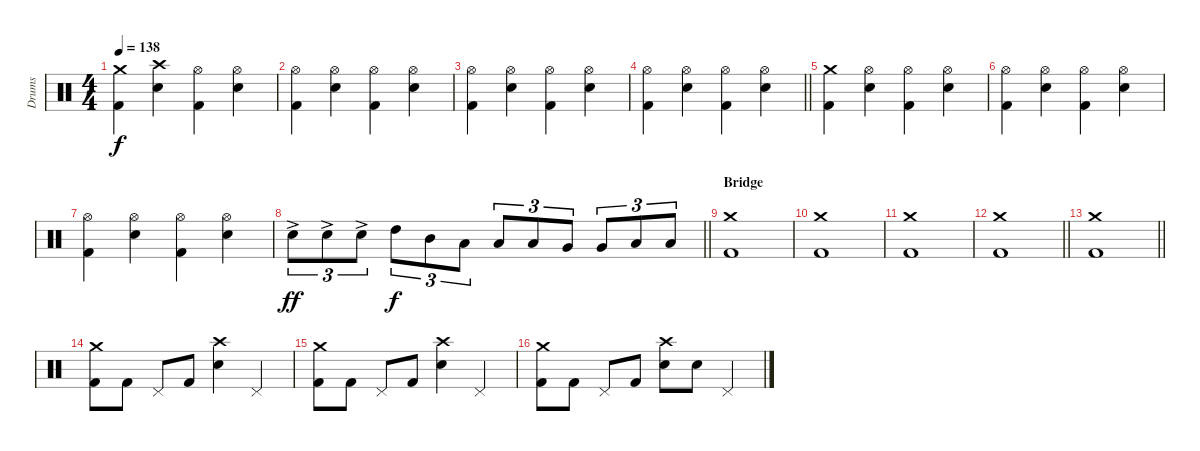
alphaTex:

\track ("Drums" "Drums") {instrument percussion}
\staff {score}
\articulation defaults
\ts (4 4)
\section ("" "")
\tempo 138
\clef neutral
\ks c
("Kick (hit) 2" "Crash medium (hit)").4{dy f} ("Snare (hit) 2" "Crash high (hit)").4 ("Kick (hit) 2" "Hi-Hat (open)").4 ("Snare (hit) 2" "Hi-Hat (open)").4 |
("Kick (hit) 2" "Hi-Hat (open)").4 ("Snare (hit) 2" "Hi-Hat (open)").4 ("Kick (hit) 2" "Hi-Hat (open)").4 ("Snare (hit) 2" "Hi-Hat (open)").4 |
("Kick (hit) 2" "Hi-Hat (open)").4 ("Snare (hit) 2" "Hi-Hat (open)").4 ("Kick (hit) 2" "Hi-Hat (open)").4 ("Snare (hit) 2" "Hi-Hat (open)").4 |
\barLineRight lightlight
("Kick (hit) 2" "Hi-Hat (open)").4 ("Snare (hit) 2" "Hi-Hat (open)").4 ("Kick (hit) 2" "Hi-Hat (open)").4 ("Snare (hit) 2" "Hi-Hat (open)").4 |
\section ("" "")
("Kick (hit) 2" "Crash medium (hit)").4 ("Snare (hit) 2" "Hi-Hat (open)").4 ("Kick (hit) 2" "Hi-Hat (open)").4 ("Snare (hit) 2" "Hi-Hat (open)").4 |
("Kick (hit) 2" "Hi-Hat (open)").4 ("Snare (hit) 2" "Hi-Hat (open)").4 ("Kick (hit) 2" "Hi-Hat (open)").4 ("Snare (hit) 2" "Hi-Hat (open)").4 |
("Kick (hit) 2" "Hi-Hat (open)").4 ("Snare (hit) 2" "Hi-Hat (open)").4 ("Kick (hit) 2" "Hi-Hat (open)").4 ("Snare (hit) 2" "Hi-Hat (open)").4 |
\barLineRight lightlight "Snare (hit) 2"{ac}.8{tu (3 2) dy ff} "Snare (hit) 2"{ac}.8{tu (3 2)} "Snare (hit) 2"{ac}.8{tu (3 2)} "High Tom (hit)".8{tu (3 2) dy f} "Mid Tom (hit)".8{tu (3 2)} "Low Tom (hit)".8{tu (3 2)} "Low Tom (hit)".8{tu (3 2)} "Low Tom (hit)".8{tu (3 2)} "Very Low Tom (hit)".8{tu (3 2)} "Very Low Tom (hit)".8{tu (3 2)} "Low Floor Tom (hit)".8{tu (3 2)} "Low Floor Tom (hit)".8{tu (3 2)}
|
\section ("" "Bridge")
("Kick (hit) 2" "Crash medium (hit)").1 |
("Kick (hit) 2" "Crash medium (hit)").1 |
("Kick (hit) 2" "Crash medium (hit)").1 |
\barLineRight lightlight
("Kick (hit) 2" "Crash medium (hit)").1 |
\section ("" "")
\barLineRight lightlight
("Kick (hit) 2" "Crash medium (hit)").1 |
\section ("" "")
("Kick (hit) 2" "Crash medium (hit)").8 "Kick (hit) 2".8 "Pedal Hi-Hat (hit)".8 "Kick (hit) 2".8 ("Snare (hit) 2" "Crash high (hit)").4 "Pedal Hi-Hat (hit)".4 |
("Kick (hit) 2" "Crash medium (hit)").8 "Kick (hit) 2".8 "Pedal Hi-Hat (hit)".8 "Kick (hit) 2".8 ("Snare (hit) 2" "Crash high (hit)").4 "Pedal Hi-Hat (hit)".4 |
("Kick (hit) 2" "Crash medium (hit)").8 "Kick (hit) 2".8 "Pedal Hi-Hat (hit)".8 "Kick (hit) 2".8 ("Snare (hit) 2" "Crash high (hit)").8 "Snare (hit) 2".8 "Pedal Hi-Hat (hit)".4
